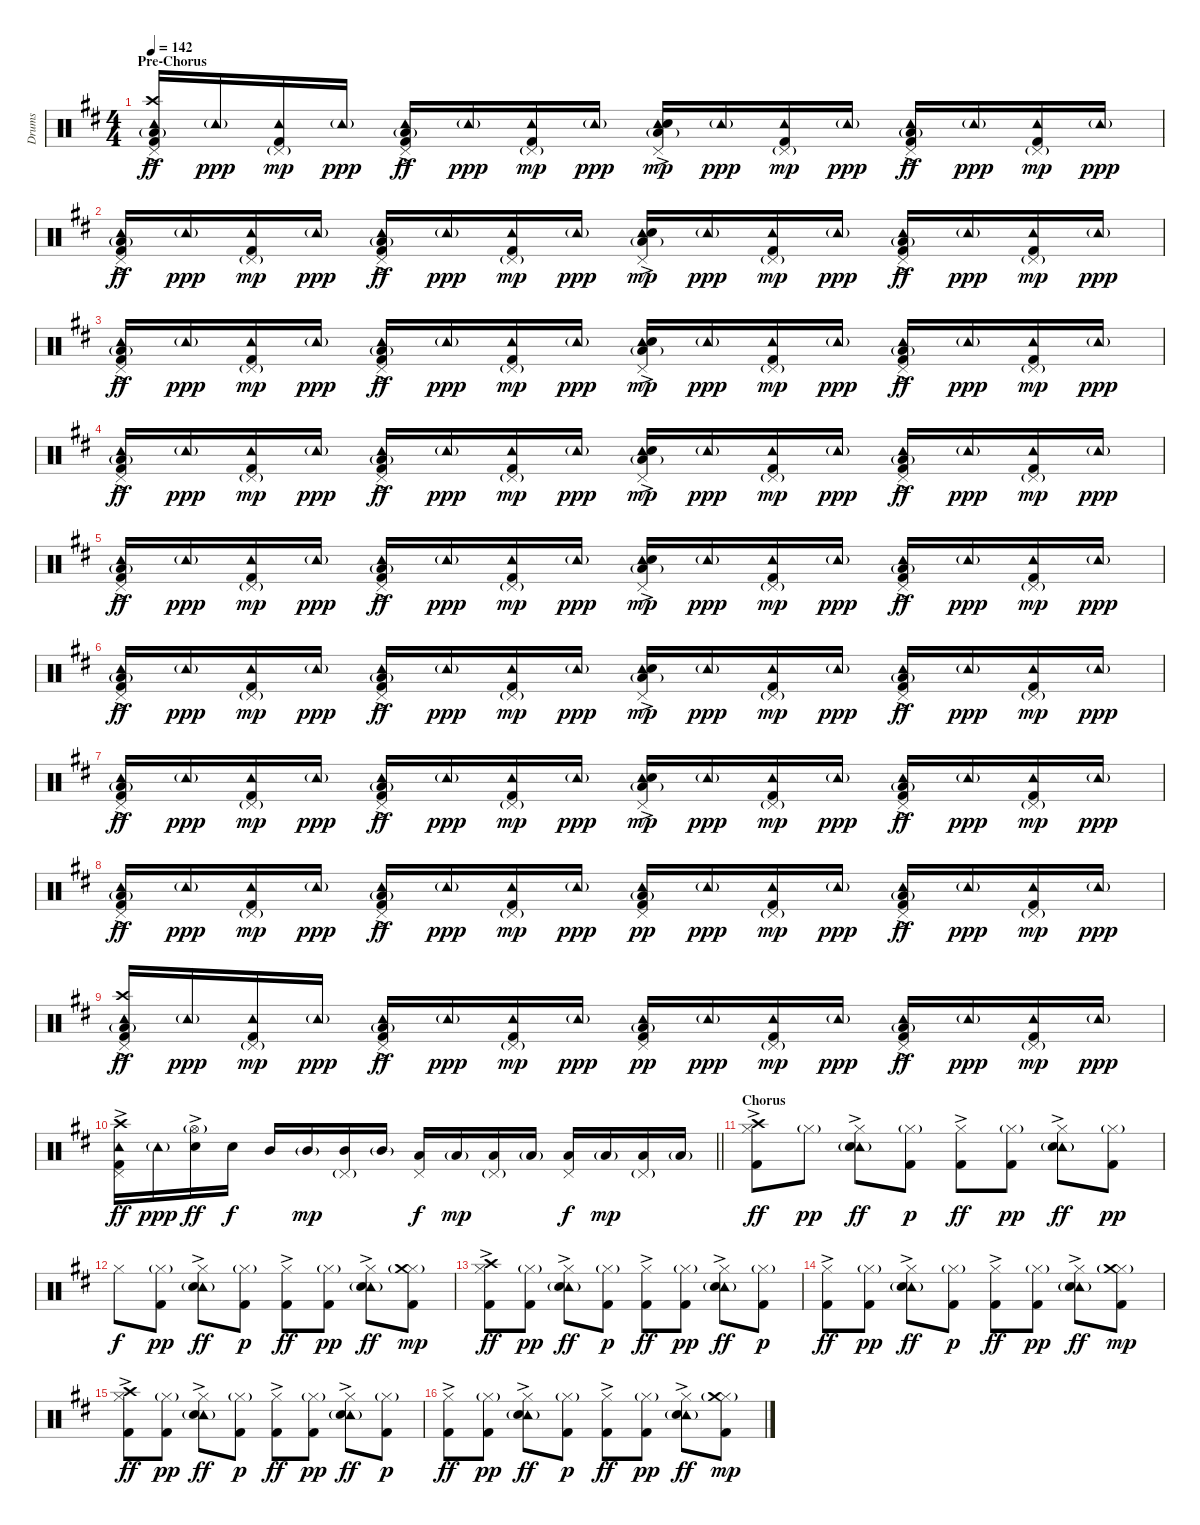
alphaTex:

\track ("Drums" "Drums") {instrument percussion}
\staff {score}
\articulation defaults
\ts (4 4)
\section ("" "Pre-Chorus")
\tempo 142
\clef neutral
\ks d
("Pedal Hi-Hat (hit)" "Tambourine (hit)" "Crash high (hit)" "Low Floor Tom (hit)"{g} "Kick (hit) 2"{ac}).16{dy ff} "Tambourine (hit)"{g}.16{dy ppp} ("Pedal Hi-Hat (hit)"{g} "Tambourine (hit)" "Kick (hit) 2").16{dy mp} "Tambourine (hit)"{g}.16{dy ppp} ("Pedal Hi-Hat (hit)" "Tambourine (hit)" "Low Floor Tom (hit)"{g} "Kick (hit) 2"{ac}).16{dy ff} "Tambourine (hit)"{g}.16{dy ppp} ("Pedal Hi-Hat (hit)"{g} "Tambourine (hit)" "Kick (hit) 2").16{dy mp} "Tambourine (hit)"{g}.16{dy ppp} ("Pedal Hi-Hat (hit)" "Tambourine (hit)" "Snare (hit) 2"{ac} "Low Floor Tom (hit)"{g}).16{dy mp} "Tambourine (hit)"{g}.16{dy ppp} ("Pedal Hi-Hat (hit)"{g} "Tambourine (hit)" "Kick (hit) 2").16{dy mp} "Tambourine (hit)"{g}.16{dy ppp} ("Pedal Hi-Hat (hit)" "Tambourine (hit)" "Low Floor Tom (hit)"{g} "Kick (hit) 2"{ac}).16{dy ff} "Tambourine (hit)"{g}.16{dy ppp} ("Pedal Hi-Hat (hit)"{g} "Tambourine (hit)" "Kick (hit) 2").16{dy mp} "Tambourine (hit)"{g}.16{dy ppp} |
("Pedal Hi-Hat (hit)" "Tambourine (hit)" "Low Floor Tom (hit)"{g} "Kick (hit) 2"{ac}).16{dy ff} "Tambourine (hit)"{g}.16{dy ppp} ("Pedal Hi-Hat (hit)"{g} "Tambourine (hit)" "Kick (hit) 2").16{dy mp} "Tambourine (hit)"{g}.16{dy ppp} ("Pedal Hi-Hat (hit)" "Tambourine (hit)" "Low Floor Tom (hit)"{g} "Kick (hit) 2"{ac}).16{dy ff} "Tambourine (hit)"{g}.16{dy ppp} ("Pedal Hi-Hat (hit)"{g} "Tambourine (hit)" "Kick (hit) 2").16{dy mp} "Tambourine (hit)"{g}.16{dy ppp} ("Pedal Hi-Hat (hit)" "Tambourine (hit)" "Snare (hit) 2"{ac} "Low Floor Tom (hit)"{g}).16{dy mp} "Tambourine (hit)"{g}.16{dy ppp} ("Pedal Hi-Hat (hit)"{g} "Tambourine (hit)" "Kick (hit) 2").16{dy mp} "Tambourine (hit)"{g}.16{dy ppp} ("Pedal Hi-Hat (hit)" "Tambourine (hit)" "Low Floor Tom (hit)"{g} "Kick (hit) 2"{ac}).16{dy ff} "Tambourine (hit)"{g}.16{dy ppp} ("Pedal Hi-Hat (hit)"{g} "Tambourine (hit)" "Kick (hit) 2").16{dy mp} "Tambourine (hit)"{g}.16{dy ppp} |
("Pedal Hi-Hat (hit)" "Tambourine (hit)" "Low Floor Tom (hit)"{g} "Kick (hit) 2"{ac}).16{dy ff} "Tambourine (hit)"{g}.16{dy ppp} ("Pedal Hi-Hat (hit)"{g} "Tambourine (hit)" "Kick (hit) 2").16{dy mp} "Tambourine (hit)"{g}.16{dy ppp} ("Pedal Hi-Hat (hit)" "Tambourine (hit)" "Low Floor Tom (hit)"{g} "Kick (hit) 2"{ac}).16{dy ff} "Tambourine (hit)"{g}.16{dy ppp} ("Pedal Hi-Hat (hit)"{g} "Tambourine (hit)" "Kick (hit) 2").16{dy mp} "Tambourine (hit)"{g}.16{dy ppp} ("Pedal Hi-Hat (hit)" "Tambourine (hit)" "Snare (hit) 2"{ac} "Low Floor Tom (hit)"{g}).16{dy mp} "Tambourine (hit)"{g}.16{dy ppp} ("Pedal Hi-Hat (hit)"{g} "Tambourine (hit)" "Kick (hit) 2").16{dy mp} "Tambourine (hit)"{g}.16{dy ppp} ("Pedal Hi-Hat (hit)" "Tambourine (hit)" "Low Floor Tom (hit)"{g} "Kick (hit) 2"{ac}).16{dy ff} "Tambourine (hit)"{g}.16{dy ppp} ("Pedal Hi-Hat (hit)"{g} "Tambourine (hit)" "Kick (hit) 2").16{dy mp} "Tambourine (hit)"{g}.16{dy ppp} |
("Pedal Hi-Hat (hit)" "Tambourine (hit)" "Low Floor Tom (hit)"{g} "Kick (hit) 2"{ac}).16{dy ff} "Tambourine (hit)"{g}.16{dy ppp} ("Pedal Hi-Hat (hit)"{g} "Tambourine (hit)" "Kick (hit) 2").16{dy mp} "Tambourine (hit)"{g}.16{dy ppp} ("Pedal Hi-Hat (hit)" "Tambourine (hit)" "Low Floor Tom (hit)"{g} "Kick (hit) 2"{ac}).16{dy ff} "Tambourine (hit)"{g}.16{dy ppp} ("Pedal Hi-Hat (hit)"{g} "Tambourine (hit)" "Kick (hit) 2").16{dy mp} "Tambourine (hit)"{g}.16{dy ppp} ("Pedal Hi-Hat (hit)" "Tambourine (hit)" "Snare (hit) 2"{ac} "Low Floor Tom (hit)"{g}).16{dy mp} "Tambourine (hit)"{g}.16{dy ppp} ("Pedal Hi-Hat (hit)"{g} "Tambourine (hit)" "Kick (hit) 2").16{dy mp} "Tambourine (hit)"{g}.16{dy ppp} ("Pedal Hi-Hat (hit)" "Tambourine (hit)" "Low Floor Tom (hit)"{g} "Kick (hit) 2"{ac}).16{dy ff} "Tambourine (hit)"{g}.16{dy ppp} ("Pedal Hi-Hat (hit)"{g} "Tambourine (hit)" "Kick (hit) 2").16{dy mp} "Tambourine (hit)"{g}.16{dy ppp} |
("Pedal Hi-Hat (hit)" "Tambourine (hit)" "Low Floor Tom (hit)"{g} "Kick (hit) 2"{ac}).16{dy ff} "Tambourine (hit)"{g}.16{dy ppp} ("Pedal Hi-Hat (hit)"{g} "Tambourine (hit)" "Kick (hit) 2").16{dy mp} "Tambourine (hit)"{g}.16{dy ppp} ("Pedal Hi-Hat (hit)" "Tambourine (hit)" "Low Floor Tom (hit)"{g} "Kick (hit) 2"{ac}).16{dy ff} "Tambourine (hit)"{g}.16{dy ppp} ("Pedal Hi-Hat (hit)"{g} "Tambourine (hit)" "Kick (hit) 2").16{dy mp} "Tambourine (hit)"{g}.16{dy ppp} ("Pedal Hi-Hat (hit)" "Tambourine (hit)" "Snare (hit) 2"{ac} "Low Floor Tom (hit)"{g}).16{dy mp} "Tambourine (hit)"{g}.16{dy ppp} ("Pedal Hi-Hat (hit)"{g} "Tambourine (hit)" "Kick (hit) 2").16{dy mp} "Tambourine (hit)"{g}.16{dy ppp} ("Pedal Hi-Hat (hit)" "Tambourine (hit)" "Low Floor Tom (hit)"{g} "Kick (hit) 2"{ac}).16{dy ff} "Tambourine (hit)"{g}.16{dy ppp} ("Pedal Hi-Hat (hit)"{g} "Tambourine (hit)" "Kick (hit) 2").16{dy mp} "Tambourine (hit)"{g}.16{dy ppp} |
("Pedal Hi-Hat (hit)" "Tambourine (hit)" "Low Floor Tom (hit)"{g} "Kick (hit) 2"{ac}).16{dy ff} "Tambourine (hit)"{g}.16{dy ppp} ("Pedal Hi-Hat (hit)"{g} "Tambourine (hit)" "Kick (hit) 2").16{dy mp} "Tambourine (hit)"{g}.16{dy ppp} ("Pedal Hi-Hat (hit)" "Tambourine (hit)" "Low Floor Tom (hit)"{g} "Kick (hit) 2"{ac}).16{dy ff} "Tambourine (hit)"{g}.16{dy ppp} ("Pedal Hi-Hat (hit)"{g} "Tambourine (hit)" "Kick (hit) 2").16{dy mp} "Tambourine (hit)"{g}.16{dy ppp} ("Pedal Hi-Hat (hit)" "Tambourine (hit)" "Snare (hit) 2"{ac} "Low Floor Tom (hit)"{g}).16{dy mp} "Tambourine (hit)"{g}.16{dy ppp} ("Pedal Hi-Hat (hit)"{g} "Tambourine (hit)" "Kick (hit) 2").16{dy mp} "Tambourine (hit)"{g}.16{dy ppp} ("Pedal Hi-Hat (hit)" "Tambourine (hit)" "Low Floor Tom (hit)"{g} "Kick (hit) 2"{ac}).16{dy ff} "Tambourine (hit)"{g}.16{dy ppp} ("Pedal Hi-Hat (hit)"{g} "Tambourine (hit)" "Kick (hit) 2").16{dy mp} "Tambourine (hit)"{g}.16{dy ppp} |
("Pedal Hi-Hat (hit)" "Tambourine (hit)" "Low Floor Tom (hit)"{g} "Kick (hit) 2"{ac}).16{dy ff} "Tambourine (hit)"{g}.16{dy ppp} ("Pedal Hi-Hat (hit)"{g} "Tambourine (hit)" "Kick (hit) 2").16{dy mp} "Tambourine (hit)"{g}.16{dy ppp} ("Pedal Hi-Hat (hit)" "Tambourine (hit)" "Low Floor Tom (hit)"{g} "Kick (hit) 2"{ac}).16{dy ff} "Tambourine (hit)"{g}.16{dy ppp} ("Pedal Hi-Hat (hit)"{g} "Tambourine (hit)" "Kick (hit) 2").16{dy mp} "Tambourine (hit)"{g}.16{dy ppp} ("Pedal Hi-Hat (hit)" "Tambourine (hit)" "Snare (hit) 2"{ac} "Low Floor Tom (hit)"{g}).16{dy mp} "Tambourine (hit)"{g}.16{dy ppp} ("Pedal Hi-Hat (hit)"{g} "Tambourine (hit)" "Kick (hit) 2").16{dy mp} "Tambourine (hit)"{g}.16{dy ppp} ("Pedal Hi-Hat (hit)" "Tambourine (hit)" "Low Floor Tom (hit)"{g} "Kick (hit) 2"{ac}).16{dy ff} "Tambourine (hit)"{g}.16{dy ppp} ("Pedal Hi-Hat (hit)"{g} "Tambourine (hit)" "Kick (hit) 2").16{dy mp} "Tambourine (hit)"{g}.16{dy ppp} |
("Pedal Hi-Hat (hit)" "Tambourine (hit)" "Low Floor Tom (hit)"{g} "Kick (hit) 2"{ac}).16{dy ff} "Tambourine (hit)"{g}.16{dy ppp} ("Pedal Hi-Hat (hit)"{g} "Tambourine (hit)" "Kick (hit) 2").16{dy mp} "Tambourine (hit)"{g}.16{dy ppp} ("Pedal Hi-Hat (hit)" "Tambourine (hit)" "Low Floor Tom (hit)"{g} "Kick (hit) 2"{ac}).16{dy ff} "Tambourine (hit)"{g}.16{dy ppp} ("Pedal Hi-Hat (hit)"{g} "Tambourine (hit)" "Kick (hit) 2").16{dy mp} "Tambourine (hit)"{g}.16{dy ppp} ("Pedal Hi-Hat (hit)" "Tambourine (hit)" "Low Floor Tom (hit)"{g} "Kick (hit) 2").16{dy pp} "Tambourine (hit)"{g}.16{dy ppp} ("Pedal Hi-Hat (hit)"{g} "Tambourine (hit)" "Kick (hit) 2").16{dy mp} "Tambourine (hit)"{g}.16{dy ppp} ("Pedal Hi-Hat (hit)" "Tambourine (hit)" "Low Floor Tom (hit)"{g} "Kick (hit) 2"{ac}).16{dy ff} "Tambourine (hit)"{g}.16{dy ppp} ("Pedal Hi-Hat (hit)"{g} "Tambourine (hit)" "Kick (hit) 2").16{dy mp} "Tambourine (hit)"{g}.16{dy ppp} |
("Pedal Hi-Hat (hit)" "Tambourine (hit)" "Crash high (hit)" "Low Floor Tom (hit)"{g} "Kick (hit) 2"{ac}).16{dy ff} "Tambourine (hit)"{g}.16{dy ppp} ("Pedal Hi-Hat (hit)"{g} "Tambourine (hit)" "Kick (hit) 2").16{dy mp} "Tambourine (hit)"{g}.16{dy ppp} ("Pedal Hi-Hat (hit)" "Tambourine (hit)" "Low Floor Tom (hit)"{g} "Kick (hit) 2"{ac}).16{dy ff} "Tambourine (hit)"{g}.16{dy ppp} ("Pedal Hi-Hat (hit)"{g} "Tambourine (hit)" "Kick (hit) 2").16{dy mp} "Tambourine (hit)"{g}.16{dy ppp} ("Pedal Hi-Hat (hit)" "Tambourine (hit)" "Low Floor Tom (hit)"{g} "Kick (hit) 2").16{dy pp} "Tambourine (hit)"{g}.16{dy ppp} ("Pedal Hi-Hat (hit)"{g} "Tambourine (hit)" "Kick (hit) 2").16{dy mp} "Tambourine (hit)"{g}.16{dy ppp} ("Pedal Hi-Hat (hit)" "Tambourine (hit)" "Low Floor Tom (hit)"{g} "Kick (hit) 2"{ac}).16{dy ff} "Tambourine (hit)"{g}.16{dy ppp} ("Pedal Hi-Hat (hit)"{g} "Tambourine (hit)" "Kick (hit) 2").16{dy mp} "Tambourine (hit)"{g}.16{dy ppp} |
\barLineRight lightlight
("Pedal Hi-Hat (hit)" "Tambourine (hit)" "Crash high (hit)" "Kick (hit) 2"{ac}).16{dy ff} "Tambourine (hit)"{g}.16{dy ppp} ("Hi-Hat (open)"{g} "Snare (hit) 2"{ac}).16{dy ff} "Snare (hit) 2".16{dy f} "Mid Tom (hit)".16 "Mid Tom (hit)"{g}.16{dy mp} ("Pedal Hi-Hat (hit)"{g} "Mid Tom (hit)").16 "Mid Tom (hit)"{g}.16 ("Pedal Hi-Hat (hit)" "Low Tom (hit)").16{dy f} "Low Tom (hit)"{g}.16{dy mp} ("Pedal Hi-Hat (hit)"{g} "Low Tom (hit)").16 "Low Tom (hit)"{g}.16 ("Pedal Hi-Hat (hit)" "Low Floor Tom (hit)").16{dy f} "Low Floor Tom (hit)"{g}.16{dy mp} ("Pedal Hi-Hat (hit)"{g} "Low Floor Tom (hit)").16 "Low Floor Tom (hit)"{g}.16 |
\section ("" "Chorus")
("Hi-Hat (closed)" "Crash high (hit)" "Kick (hit) 2"{ac}).8{dy ff} "Hi-Hat (closed)"{g}.8{dy pp} ("Hi-Hat (closed)" "Tambourine (hit)"{g} "Snare (hit) 2"{ac}).8{dy ff} ("Hi-Hat (closed)"{g} "Kick (hit) 2").8{dy p} ("Hi-Hat (closed)" "Kick (hit) 2"{ac}).8{dy ff} ("Hi-Hat (closed)"{g} "Kick (hit) 2").8{dy pp} ("Hi-Hat (closed)" "Tambourine (hit)"{g} "Snare (hit) 2"{ac}).8{dy ff} ("Hi-Hat (closed)"{g} "Kick (hit) 2").8{dy pp} |
"Hi-Hat (closed)".8{dy f} ("Hi-Hat (closed)"{g} "Kick (hit) 2").8{dy pp} ("Hi-Hat (closed)" "Tambourine (hit)"{g} "Snare (hit) 2"{ac}).8{dy ff} ("Hi-Hat (closed)"{g} "Kick (hit) 2").8{dy p} ("Hi-Hat (closed)" "Kick (hit) 2"{ac}).8{dy ff} ("Hi-Hat (closed)"{g} "Kick (hit) 2").8{dy pp} ("Hi-Hat (closed)" "Tambourine (hit)"{g} "Snare (hit) 2"{ac}).8{dy ff} ("Hi-Hat (closed)"{g} "Crash medium (hit)"{g} "Kick (hit) 2").8{dy mp} |
("Hi-Hat (closed)" "Crash high (hit)" "Kick (hit) 2"{ac}).8{dy ff} ("Hi-Hat (closed)"{g} "Kick (hit) 2").8{dy pp} ("Hi-Hat (closed)" "Tambourine (hit)"{g} "Snare (hit) 2"{ac}).8{dy ff} ("Hi-Hat (closed)"{g} "Kick (hit) 2").8{dy p} ("Hi-Hat (closed)" "Kick (hit) 2"{ac}).8{dy ff} ("Hi-Hat (closed)"{g} "Kick (hit) 2").8{dy pp} ("Hi-Hat (closed)" "Tambourine (hit)"{g} "Snare (hit) 2"{ac}).8{dy ff} ("Hi-Hat (closed)"{g} "Kick (hit) 2").8{dy p} |
("Hi-Hat (closed)" "Kick (hit) 2"{ac}).8{dy ff} ("Hi-Hat (closed)"{g} "Kick (hit) 2").8{dy pp} ("Hi-Hat (closed)" "Tambourine (hit)"{g} "Snare (hit) 2"{ac}).8{dy ff} ("Hi-Hat (closed)"{g} "Kick (hit) 2").8{dy p} ("Hi-Hat (closed)" "Kick (hit) 2"{ac}).8{dy ff} ("Hi-Hat (closed)"{g} "Kick (hit) 2").8{dy pp} ("Hi-Hat (closed)" "Tambourine (hit)"{g} "Snare (hit) 2"{ac}).8{dy ff} ("Hi-Hat (closed)"{g} "Crash medium (hit)"{g} "Kick (hit) 2").8{dy mp} |
("Hi-Hat (closed)" "Crash high (hit)" "Kick (hit) 2"{ac}).8{dy ff} ("Hi-Hat (closed)"{g} "Kick (hit) 2").8{dy pp} ("Hi-Hat (closed)" "Tambourine (hit)"{g} "Snare (hit) 2"{ac}).8{dy ff} ("Hi-Hat (closed)"{g} "Kick (hit) 2").8{dy p} ("Hi-Hat (closed)" "Kick (hit) 2"{ac}).8{dy ff} ("Hi-Hat (closed)"{g} "Kick (hit) 2").8{dy pp} ("Hi-Hat (closed)" "Tambourine (hit)"{g} "Snare (hit) 2"{ac}).8{dy ff} ("Hi-Hat (closed)"{g} "Kick (hit) 2").8{dy p} |
("Hi-Hat (closed)" "Kick (hit) 2"{ac}).8{dy ff} ("Hi-Hat (closed)"{g} "Kick (hit) 2").8{dy pp} ("Hi-Hat (closed)" "Tambourine (hit)"{g} "Snare (hit) 2"{ac}).8{dy ff} ("Hi-Hat (closed)"{g} "Kick (hit) 2").8{dy p} ("Hi-Hat (closed)" "Kick (hit) 2"{ac}).8{dy ff} ("Hi-Hat (closed)"{g} "Kick (hit) 2").8{dy pp} ("Hi-Hat (closed)" "Tambourine (hit)"{g} "Snare (hit) 2"{ac}).8{dy ff} ("Hi-Hat (closed)"{g} "Crash medium (hit)"{g} "Kick (hit) 2").8{dy mp}
